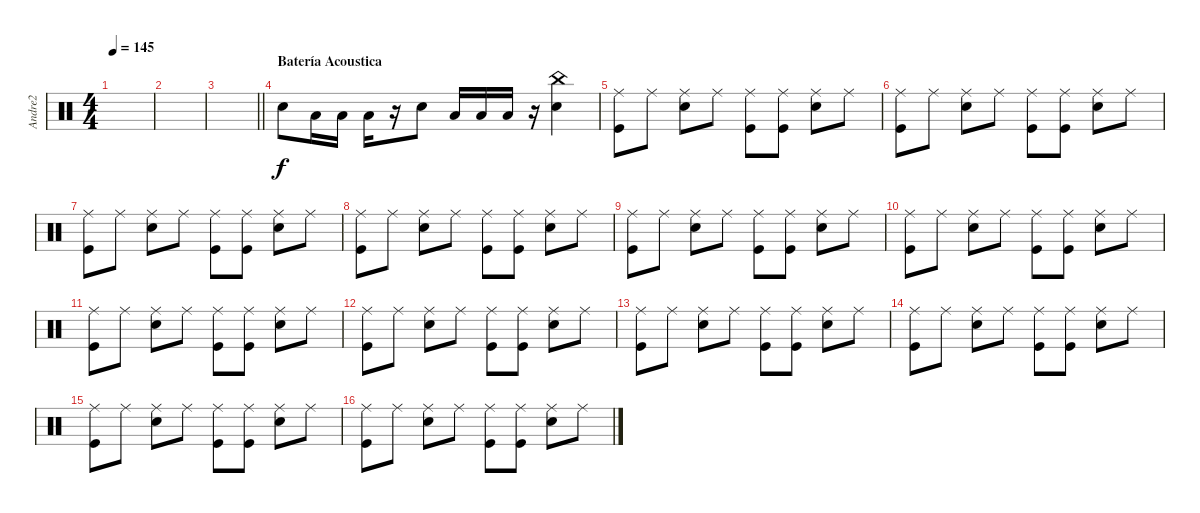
\track ("Andre2" "Andre2") {instrument percussion}
\staff {score}
\articulation defaults
\ts (4 4)
\tempo 145
\clef neutral
\ks c
|
|
\barLineRight lightlight
|
\section ("" "Batería Acoustica")
"Snare (hit) 2".8 "Low Floor Tom (hit)".16 "Low Floor Tom (hit)".16 "Low Tom (hit)".16 r.16 "Snare (hit) 2".8 "Low Floor Tom (hit)".16 "Low Floor Tom (hit)".16 "Low Tom (hit)".16 r.16 ("Snare (hit) 2" "China (hit)").4 |
("Kick (hit)" "Ride (middle)").8 "Ride (middle)".8 ("Ride (middle)" "Snare (hit) 2").8 "Ride (middle)".8 ("Kick (hit)" "Ride (middle)").8 ("Kick (hit)" "Ride (middle)").8 ("Ride (middle)" "Snare (hit) 2").8 "Ride (middle)".8 |
("Kick (hit)" "Ride (middle)").8 "Ride (middle)".8 ("Ride (middle)" "Snare (hit) 2").8 "Ride (middle)".8 ("Kick (hit)" "Ride (middle)").8 ("Kick (hit)" "Ride (middle)").8 ("Ride (middle)" "Snare (hit) 2").8 "Ride (middle)".8 |
("Kick (hit)" "Ride (middle)").8 "Ride (middle)".8 ("Ride (middle)" "Snare (hit) 2").8 "Ride (middle)".8 ("Kick (hit)" "Ride (middle)").8 ("Kick (hit)" "Ride (middle)").8 ("Ride (middle)" "Snare (hit) 2").8 "Ride (middle)".8 |
("Kick (hit)" "Ride (middle)").8 "Ride (middle)".8 ("Ride (middle)" "Snare (hit) 2").8 "Ride (middle)".8 ("Kick (hit)" "Ride (middle)").8 ("Kick (hit)" "Ride (middle)").8 ("Ride (middle)" "Snare (hit) 2").8 "Ride (middle)".8 |
("Kick (hit)" "Ride (middle)").8 "Ride (middle)".8 ("Ride (middle)" "Snare (hit) 2").8 "Ride (middle)".8 ("Kick (hit)" "Ride (middle)").8 ("Kick (hit)" "Ride (middle)").8 ("Ride (middle)" "Snare (hit) 2").8 "Ride (middle)".8 |
("Kick (hit)" "Ride (middle)").8 "Ride (middle)".8 ("Ride (middle)" "Snare (hit) 2").8 "Ride (middle)".8 ("Kick (hit)" "Ride (middle)").8 ("Kick (hit)" "Ride (middle)").8 ("Ride (middle)" "Snare (hit) 2").8 "Ride (middle)".8 |
("Kick (hit)" "Ride (middle)").8 "Ride (middle)".8 ("Ride (middle)" "Snare (hit) 2").8 "Ride (middle)".8 ("Kick (hit)" "Ride (middle)").8 ("Kick (hit)" "Ride (middle)").8 ("Ride (middle)" "Snare (hit) 2").8 "Ride (middle)".8 |
("Kick (hit)" "Ride (middle)").8 "Ride (middle)".8 ("Ride (middle)" "Snare (hit) 2").8 "Ride (middle)".8 ("Kick (hit)" "Ride (middle)").8 ("Kick (hit)" "Ride (middle)").8 ("Ride (middle)" "Snare (hit) 2").8 "Ride (middle)".8 |
("Kick (hit)" "Ride (middle)").8 "Ride (middle)".8 ("Ride (middle)" "Snare (hit) 2").8 "Ride (middle)".8 ("Kick (hit)" "Ride (middle)").8 ("Kick (hit)" "Ride (middle)").8 ("Ride (middle)" "Snare (hit) 2").8 "Ride (middle)".8 |
("Kick (hit)" "Ride (middle)").8 "Ride (middle)".8 ("Ride (middle)" "Snare (hit) 2").8 "Ride (middle)".8 ("Kick (hit)" "Ride (middle)").8 ("Kick (hit)" "Ride (middle)").8 ("Ride (middle)" "Snare (hit) 2").8 "Ride (middle)".8 |
("Kick (hit)" "Ride (middle)").8 "Ride (middle)".8 ("Ride (middle)" "Snare (hit) 2").8 "Ride (middle)".8 ("Kick (hit)" "Ride (middle)").8 ("Kick (hit)" "Ride (middle)").8 ("Ride (middle)" "Snare (hit) 2").8 "Ride (middle)".8 |
("Kick (hit)" "Ride (middle)").8 "Ride (middle)".8 ("Ride (middle)" "Snare (hit) 2").8 "Ride (middle)".8 ("Kick (hit)" "Ride (middle)").8 ("Kick (hit)" "Ride (middle)").8 ("Ride (middle)" "Snare (hit) 2").8 "Ride (middle)".8
